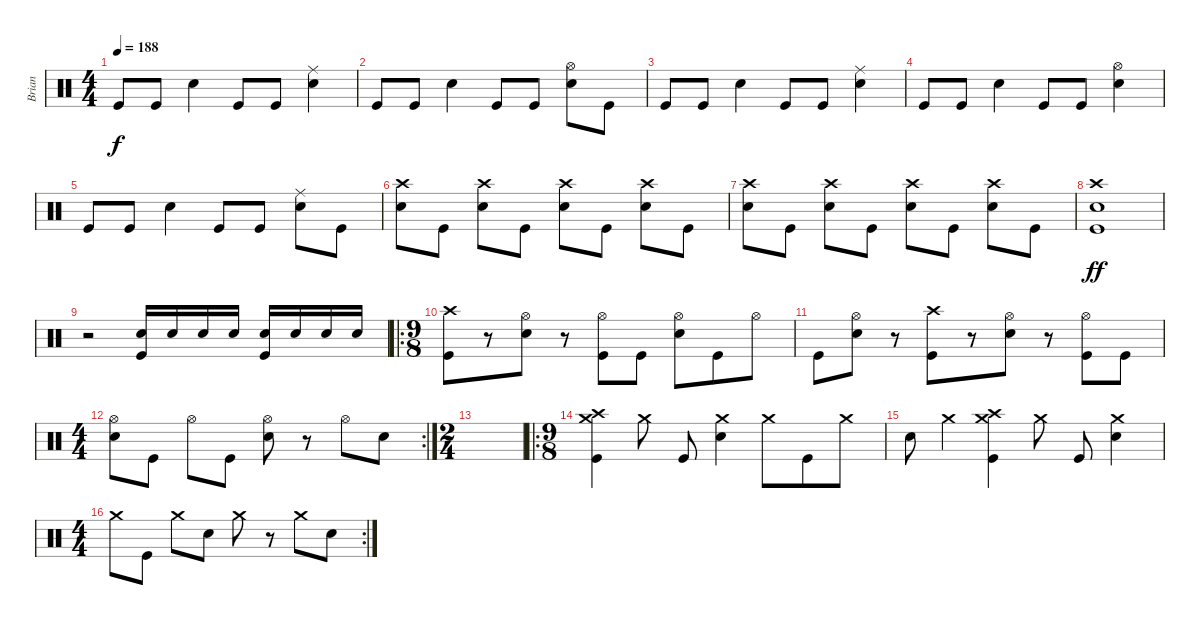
\track ("Brian" "Brian") {instrument percussion}
\staff {score}
\articulation defaults
\ts (4 4)
\tempo 188
\clef neutral
\ks c "Kick (hit)".8{dy f} "Kick (hit)".8 "Snare (hit) 2".4 "Kick (hit)".8 "Kick (hit)".8
("Ride (middle)" "Snare (hit) 2").4 |
"Kick (hit)".8 "Kick (hit)".8 "Snare (hit) 2".4 "Kick (hit)".8 "Kick (hit)".8 ("Hi-Hat (open)" "Snare (hit) 2").8 "Kick (hit)".8 |
"Kick (hit)".8 "Kick (hit)".8 "Snare (hit) 2".4 "Kick (hit)".8 "Kick (hit)".8 ("Ride (middle)" "Snare (hit) 2").4 |
"Kick (hit)".8 "Kick (hit)".8 "Snare (hit) 2".4 "Kick (hit)".8 "Kick (hit)".8 ("Hi-Hat (open)" "Snare (hit) 2").4 |
"Kick (hit)".8 "Kick (hit)".8 "Snare (hit) 2".4 "Kick (hit)".8 "Kick (hit)".8 ("Ride (middle)" "Snare (hit) 2").8 "Kick (hit)".8 |
("Crash high (hit)" "Snare (hit) 2").8 "Kick (hit)".8 ("Crash high (hit)" "Snare (hit) 2").8 "Kick (hit)".8 ("Crash high (hit)" "Snare (hit) 2").8 "Kick (hit)".8 ("Crash high (hit)" "Snare (hit) 2").8 "Kick (hit)".8 |
("Crash high (hit)" "Snare (hit) 2").8 "Kick (hit)".8 ("Crash high (hit)" "Snare (hit) 2").8 "Kick (hit)".8 ("Crash high (hit)" "Snare (hit) 2").8 "Kick (hit)".8 ("Crash high (hit)" "Snare (hit) 2").8 "Kick (hit)".8 |
("Crash high (hit)" "Kick (hit)" "Snare (hit) 2").1{dy ff} |
r.2 ("Snare (hit) 2" "Kick (hit)").16 "Snare (hit) 2".16 "Snare (hit) 2".16 "Snare (hit) 2".16 ("Snare (hit) 2" "Kick (hit)").16 "Snare (hit) 2".16 "Snare (hit) 2".16 "Snare (hit) 2".16 |
\ro
\ts (9 8)
("Crash high (hit)" "Kick (hit)").8 r.8 ("Hi-Hat (open)" "Snare (hit) 2").8 r.8 ("Hi-Hat (open)" "Kick (hit)").8 "Kick (hit)".8 ("Hi-Hat (open)" "Snare (hit) 2").8 "Kick (hit)".8 "Hi-Hat (open)".8 |
"Kick (hit)".8 ("Hi-Hat (open)" "Snare (hit) 2").8 r.8 ("Crash high (hit)" "Kick (hit)").8 r.8 ("Hi-Hat (open)" "Snare (hit) 2").8 r.8 ("Hi-Hat (open)" "Kick (hit)").8 "Kick (hit)".8 |
\rc 2
\ts (4 4)
("Hi-Hat (open)" "Snare (hit) 2").8 "Kick (hit)".8 "Hi-Hat (open)".8 "Kick (hit)".8 ("Hi-Hat (open)" "Snare (hit) 2").8 r.8 "Hi-Hat (open)".8 "Snare (hit) 2".8 |
\ts (2 4)
|
\ro
\ts (9 8)
("Crash high (hit)" "Crash medium (hit)" "Kick (hit)").4 "Crash medium (hit)".8 "Kick (hit)".8 ("Crash medium (hit)" "Snare (hit) 2").4 "Crash medium (hit)".8 "Kick (hit)".8 "Crash medium (hit)".8 |
"Snare (hit) 2".8 "Crash medium (hit)".4 ("Crash high (hit)" "Crash medium (hit)" "Kick (hit)").4 "Crash medium (hit)".8 "Kick (hit)".8 ("Crash medium (hit)" "Snare (hit) 2").4 |
\rc 2
\ts (4 4)
"Crash medium (hit)".8 "Kick (hit)".8 "Crash medium (hit)".8 "Snare (hit) 2".8 "Crash medium (hit)".8 r.8 "Crash medium (hit)".8 "Snare (hit) 2".8
